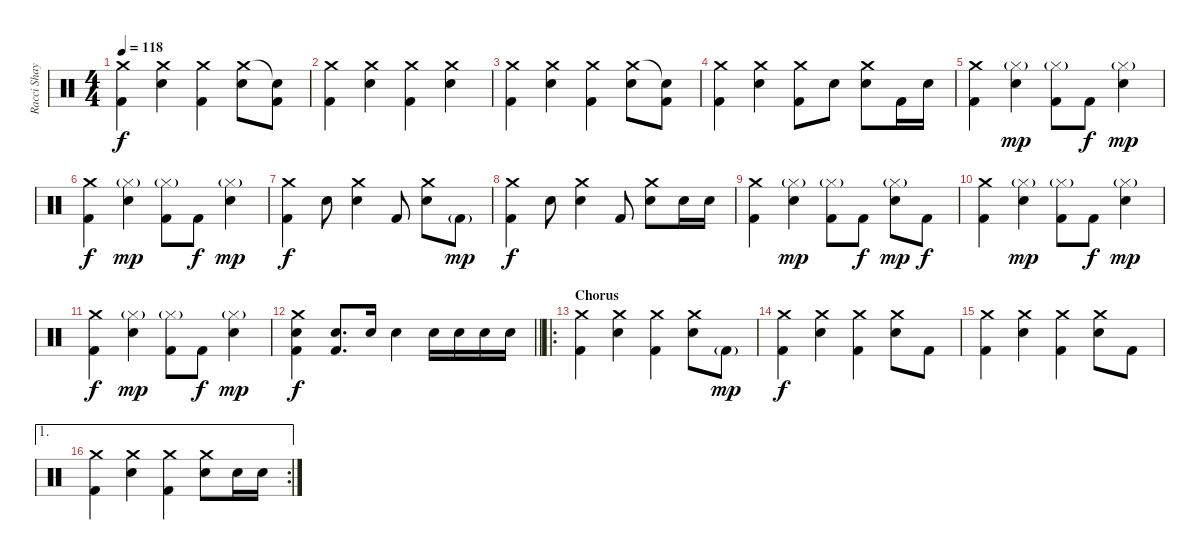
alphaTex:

\track ("Racci Shay" "Racci Shay") {instrument percussion}
\staff {score}
\articulation defaults
\ts (4 4)
\tempo 118
\clef neutral
\ks c
("Crash medium (hit)" "Kick (hit) 2").4{dy f} ("Crash medium (hit)" "Electric Snare (hit)").4 ("Crash medium (hit)" "Kick (hit) 2").4 ("Crash medium (hit)" "Electric Snare (hit)").8 ("Snare (hit)"{t} "Kick (hit) 2").8 |
("Crash medium (hit)" "Kick (hit) 2").4 ("Crash medium (hit)" "Electric Snare (hit)").4 ("Crash medium (hit)" "Kick (hit) 2").4 ("Crash medium (hit)" "Electric Snare (hit)").4 |
("Crash medium (hit)" "Kick (hit) 2").4 ("Crash medium (hit)" "Electric Snare (hit)").4 ("Crash medium (hit)" "Kick (hit) 2").4 ("Crash medium (hit)" "Electric Snare (hit)").8 ("Snare (hit)"{t} "Kick (hit) 2").8 |
("Crash medium (hit)" "Kick (hit) 2").4 ("Crash medium (hit)" "Electric Snare (hit)").4 ("Crash medium (hit)" "Kick (hit) 2").8 "Electric Snare (hit)".8 ("Crash medium (hit)" "Electric Snare (hit)").8 "Kick (hit) 2".16 "Electric Snare (hit)".16 |
("Crash medium (hit)" "Kick (hit) 2").4 ("Hi-Hat (closed)"{g} "Electric Snare (hit)").4{dy mp} ("Hi-Hat (closed)"{g} "Kick (hit) 2").8 "Kick (hit) 2".8{dy f} ("Hi-Hat (closed)"{g} "Electric Snare (hit)").4{dy mp} |
("Crash medium (hit)" "Kick (hit) 2").4{dy f} ("Hi-Hat (closed)"{g} "Electric Snare (hit)").4{dy mp} ("Hi-Hat (closed)"{g} "Kick (hit) 2").8 "Kick (hit) 2".8{dy f} ("Hi-Hat (closed)"{g} "Electric Snare (hit)").4{dy mp} |
("Crash medium (hit)" "Kick (hit) 2").4{dy f} "Electric Snare (hit)".8 ("Crash medium (hit)" "Electric Snare (hit)").4 "Kick (hit) 2".8 ("Crash medium (hit)" "Electric Snare (hit)").8 "Kick (hit) 2"{g}.8{dy mp} |
("Crash medium (hit)" "Kick (hit) 2").4{dy f} "Electric Snare (hit)".8 ("Crash medium (hit)" "Electric Snare (hit)").4 "Kick (hit) 2".8 ("Crash medium (hit)" "Electric Snare (hit)").8 "Electric Snare (hit)".16 "Electric Snare (hit)".16 |
("Crash medium (hit)" "Kick (hit) 2").4 ("Hi-Hat (closed)"{g} "Electric Snare (hit)").4{dy mp} ("Hi-Hat (closed)"{g} "Kick (hit) 2").8 "Kick (hit) 2".8{dy f} ("Hi-Hat (closed)"{g} "Electric Snare (hit)").8{dy mp} "Kick (hit) 2".8{dy f} |
("Crash medium (hit)" "Kick (hit) 2").4 ("Hi-Hat (closed)"{g} "Electric Snare (hit)").4{dy mp} ("Hi-Hat (closed)"{g} "Kick (hit) 2").8 "Kick (hit) 2".8{dy f} ("Hi-Hat (closed)"{g} "Electric Snare (hit)").4{dy mp} |
("Crash medium (hit)" "Kick (hit) 2").4{dy f} ("Hi-Hat (closed)"{g} "Electric Snare (hit)").4{dy mp} ("Hi-Hat (closed)"{g} "Kick (hit) 2").8 "Kick (hit) 2".8{dy f} ("Hi-Hat (closed)"{g} "Electric Snare (hit)").4{dy mp} |
\barLineRight lightlight
("Crash medium (hit)" "Electric Snare (hit)" "Kick (hit) 2").4{dy f} ("Electric Snare (hit)" "Kick (hit) 2").8{d} "Electric Snare (hit)".16 "Electric Snare (hit)".4 "Electric Snare (hit)".16 "Electric Snare (hit)".16 "Electric Snare (hit)".16 "Electric Snare (hit)".16 |
\ro
\section ("" "Chorus")
("Crash medium (hit)" "Kick (hit) 2").4 ("Crash medium (hit)" "Electric Snare (hit)").4 ("Crash medium (hit)" "Kick (hit) 2").4 ("Crash medium (hit)" "Electric Snare (hit)").8 "Kick (hit) 2"{g}.8{dy mp} |
("Crash medium (hit)" "Kick (hit) 2").4{dy f} ("Crash medium (hit)" "Electric Snare (hit)").4 ("Crash medium (hit)" "Kick (hit) 2").4 ("Crash medium (hit)" "Electric Snare (hit)").8 "Kick (hit) 2".8 |
("Crash medium (hit)" "Kick (hit) 2").4 ("Crash medium (hit)" "Electric Snare (hit)").4 ("Crash medium (hit)" "Kick (hit) 2").4 ("Crash medium (hit)" "Electric Snare (hit)").8 "Kick (hit) 2".8 |
\ae 1
\rc 2
("Crash medium (hit)" "Kick (hit) 2").4 ("Crash medium (hit)" "Electric Snare (hit)").4 ("Crash medium (hit)" "Kick (hit) 2").4 ("Crash medium (hit)" "Electric Snare (hit)").8 "Electric Snare (hit)".16 "Electric Snare (hit)".16
